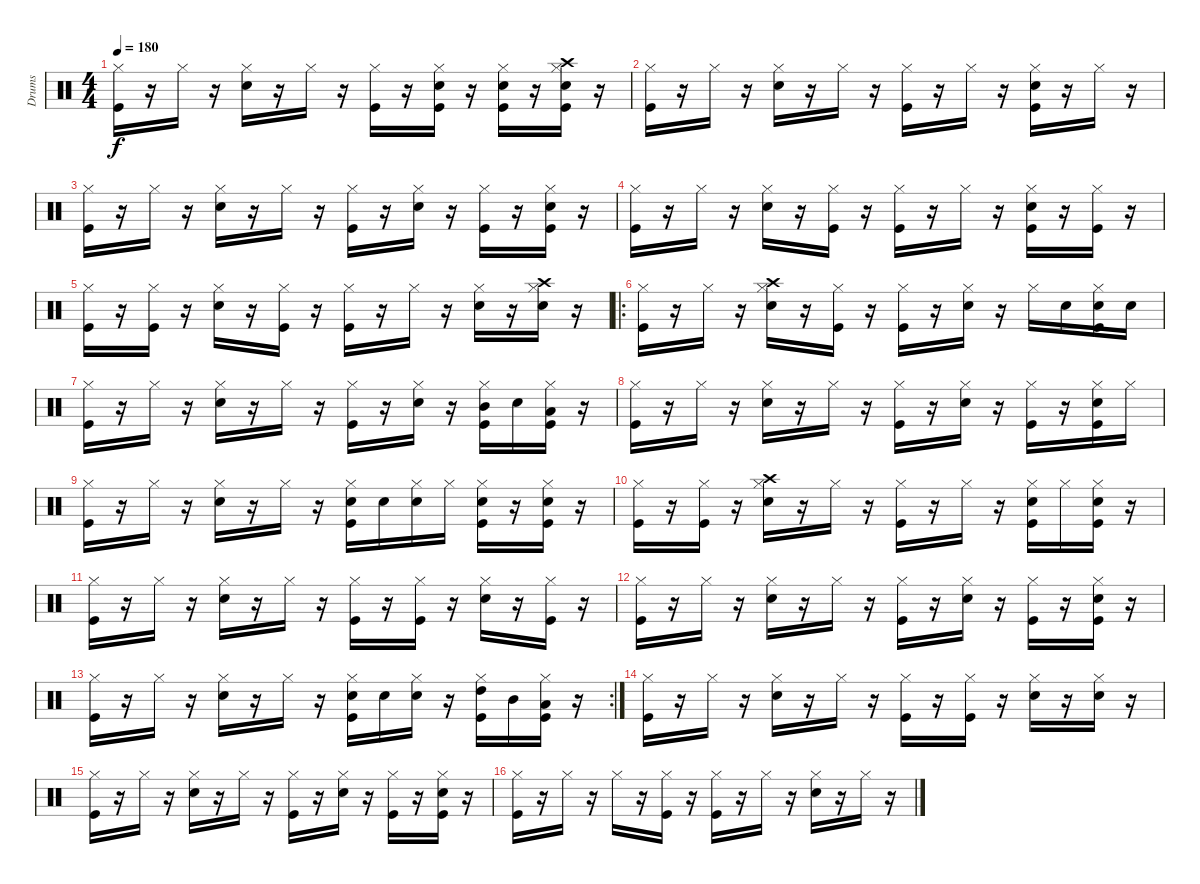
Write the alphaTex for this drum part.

\track ("Drums" "Drums") {instrument percussion}
\staff {score}
\articulation defaults
\ts (4 4)
\tempo 180
\clef neutral
\ks c
("Hi-Hat (closed)" "Kick (hit)").16{dy f} r.16 "Hi-Hat (closed)".16 r.16 ("Hi-Hat (closed)" "Snare (hit) 2").16 r.16 "Hi-Hat (closed)".16 r.16 ("Hi-Hat (closed)" "Kick (hit)").16 r.16 ("Hi-Hat (closed)" "Snare (hit) 2" "Kick (hit)").16 r.16 ("Hi-Hat (closed)" "Snare (hit) 2" "Kick (hit)").16 r.16 ("Crash high (hit)" "Hi-Hat (closed)" "Snare (hit) 2" "Kick (hit)").16 r.16 |
("Hi-Hat (closed)" "Kick (hit)").16 r.16 "Hi-Hat (closed)".16 r.16 ("Hi-Hat (closed)" "Snare (hit) 2").16 r.16 "Hi-Hat (closed)".16 r.16 ("Hi-Hat (closed)" "Kick (hit)").16 r.16 "Hi-Hat (closed)".16 r.16 ("Hi-Hat (closed)" "Snare (hit) 2" "Kick (hit)").16 r.16 "Hi-Hat (closed)".16 r.16 |
("Hi-Hat (closed)" "Kick (hit)").16 r.16 "Hi-Hat (closed)".16 r.16 ("Hi-Hat (closed)" "Snare (hit) 2").16 r.16 "Hi-Hat (closed)".16 r.16 ("Hi-Hat (closed)" "Kick (hit)").16 r.16 ("Hi-Hat (closed)" "Snare (hit) 2").16 r.16 ("Hi-Hat (closed)" "Kick (hit)").16 r.16 ("Hi-Hat (closed)" "Snare (hit) 2" "Kick (hit)").16 r.16 |
("Hi-Hat (closed)" "Kick (hit)").16 r.16 "Hi-Hat (closed)".16 r.16 ("Hi-Hat (closed)" "Snare (hit) 2").16 r.16 ("Hi-Hat (closed)" "Kick (hit)").16 r.16 ("Hi-Hat (closed)" "Kick (hit)").16 r.16 "Hi-Hat (closed)".16 r.16 ("Hi-Hat (closed)" "Snare (hit) 2" "Kick (hit)").16 r.16 ("Hi-Hat (closed)" "Kick (hit)").16 r.16 |
("Hi-Hat (closed)" "Kick (hit)").16 r.16 ("Hi-Hat (closed)" "Kick (hit)").16 r.16 ("Hi-Hat (closed)" "Snare (hit) 2").16 r.16 ("Hi-Hat (closed)" "Kick (hit)").16 r.16 ("Hi-Hat (closed)" "Kick (hit)").16 r.16 "Hi-Hat (closed)".16 r.16 ("Hi-Hat (closed)" "Snare (hit) 2").16 r.16 ("Crash high (hit)" "Hi-Hat (closed)" "Snare (hit) 2").16 r.16 |
\ro
("Hi-Hat (closed)" "Kick (hit)").16 r.16 "Hi-Hat (closed)".16 r.16 ("Crash high (hit)" "Hi-Hat (closed)" "Snare (hit) 2").16 r.16 ("Hi-Hat (closed)" "Kick (hit)").16 r.16 ("Hi-Hat (closed)" "Kick (hit)").16 r.16 ("Hi-Hat (closed)" "Snare (hit) 2").16 r.16 "Hi-Hat (closed)".16 "Snare (hit)".16 ("Hi-Hat (closed)" "Snare (hit) 2" "Kick (hit)").16 "Snare (hit) 2".16 |
("Hi-Hat (closed)" "Kick (hit)").16 r.16 "Hi-Hat (closed)".16 r.16 ("Hi-Hat (closed)" "Snare (hit) 2").16 r.16 "Hi-Hat (closed)".16 r.16 ("Hi-Hat (closed)" "Kick (hit)").16 r.16 ("Hi-Hat (closed)" "Snare (hit) 2").16 r.16 ("Hi-Hat (closed)" "Mid Tom (hit)" "Kick (hit)").16 "Snare (hit) 2".16 ("Hi-Hat (closed)" "Low Tom (hit)" "Kick (hit)").16 r.16 |
("Hi-Hat (closed)" "Kick (hit)").16 r.16 "Hi-Hat (closed)".16 r.16 ("Hi-Hat (closed)" "Snare (hit) 2").16 r.16 "Hi-Hat (closed)".16 r.16 ("Hi-Hat (closed)" "Kick (hit)").16 r.16 ("Hi-Hat (closed)" "Snare (hit) 2").16 r.16 ("Hi-Hat (closed)" "Kick (hit)").16 r.16 ("Hi-Hat (closed)" "Snare (hit) 2" "Kick (hit)").16 "Hi-Hat (closed)".16 |
("Hi-Hat (closed)" "Kick (hit)").16 r.16 "Hi-Hat (closed)".16 r.16 ("Hi-Hat (closed)" "Snare (hit) 2").16 r.16 "Hi-Hat (closed)".16 r.16 ("Hi-Hat (closed)" "Snare (hit) 2" "Kick (hit)").16 "Snare (hit) 2".16 ("Hi-Hat (closed)" "Snare (hit) 2").16 "Hi-Hat (closed)".16 ("Hi-Hat (closed)" "Snare (hit) 2" "Kick (hit)").16 r.16 ("Hi-Hat (closed)" "Snare (hit) 2" "Kick (hit)").16 r.16 |
("Hi-Hat (closed)" "Kick (hit)").16 r.16 ("Hi-Hat (closed)" "Kick (hit)").16 r.16 ("Crash high (hit)" "Hi-Hat (closed)" "Snare (hit) 2").16 r.16 "Hi-Hat (closed)".16 r.16 ("Hi-Hat (closed)" "Kick (hit)").16 r.16 "Hi-Hat (closed)".16 r.16 ("Hi-Hat (closed)" "Snare (hit) 2" "Kick (hit)").16 "Hi-Hat (closed)".16 ("Hi-Hat (closed)" "Snare (hit) 2" "Kick (hit)").16 r.16 |
("Hi-Hat (closed)" "Kick (hit)").16 r.16 "Hi-Hat (closed)".16 r.16 ("Hi-Hat (closed)" "Snare (hit) 2").16 r.16 "Hi-Hat (closed)".16 r.16 ("Hi-Hat (closed)" "Kick (hit)").16 r.16 ("Hi-Hat (closed)" "Kick (hit)").16 r.16 ("Hi-Hat (closed)" "Snare (hit) 2").16 r.16 ("Hi-Hat (closed)" "Kick (hit)").16 r.16 |
("Hi-Hat (closed)" "Kick (hit)").16 r.16 "Hi-Hat (closed)".16 r.16 ("Hi-Hat (closed)" "Snare (hit) 2").16 r.16 "Hi-Hat (closed)".16 r.16 ("Hi-Hat (closed)" "Kick (hit)").16 r.16 ("Hi-Hat (closed)" "Snare (hit) 2").16 r.16 ("Hi-Hat (closed)" "Kick (hit)").16 r.16 ("Hi-Hat (closed)" "Snare (hit) 2" "Kick (hit)").16 r.16 |
\rc 2
("Hi-Hat (closed)" "Kick (hit)").16 r.16 "Hi-Hat (closed)".16 r.16 ("Hi-Hat (closed)" "Snare (hit) 2").16 r.16 "Hi-Hat (closed)".16 r.16 ("Hi-Hat (closed)" "Snare (hit) 2" "Kick (hit)").16 "Snare (hit) 2".16 ("Hi-Hat (closed)" "Snare (hit) 2").16 r.16 ("Hi-Hat (closed)" "High Tom (hit)" "Kick (hit)").16 "Mid Tom (hit)".16 ("Hi-Hat (closed)" "Low Tom (hit)" "Kick (hit)").16 r.16 |
("Hi-Hat (closed)" "Kick (hit)").16 r.16 "Hi-Hat (closed)".16 r.16 ("Hi-Hat (closed)" "Snare (hit) 2").16 r.16 "Hi-Hat (closed)".16 r.16 ("Hi-Hat (closed)" "Kick (hit)").16 r.16 ("Hi-Hat (closed)" "Kick (hit)").16 r.16 ("Hi-Hat (closed)" "Snare (hit) 2").16 r.16 ("Hi-Hat (closed)" "Snare (hit) 2").16 r.16 |
("Hi-Hat (closed)" "Kick (hit)").16 r.16 "Hi-Hat (closed)".16 r.16 ("Hi-Hat (closed)" "Snare (hit) 2").16 r.16 "Hi-Hat (closed)".16 r.16 ("Hi-Hat (closed)" "Kick (hit)").16 r.16 ("Hi-Hat (closed)" "Snare (hit) 2").16 r.16 ("Hi-Hat (closed)" "Kick (hit)").16 r.16 ("Hi-Hat (closed)" "Snare (hit) 2" "Kick (hit)").16 r.16 |
("Hi-Hat (closed)" "Kick (hit)").16 r.16 "Hi-Hat (closed)".16 r.16 "Hi-Hat (closed)".16 r.16 ("Hi-Hat (closed)" "Kick (hit)").16 r.16 ("Hi-Hat (closed)" "Kick (hit)").16 r.16 "Hi-Hat (closed)".16 r.16 ("Hi-Hat (closed)" "Snare (hit) 2").16 r.16 "Hi-Hat (closed)".16 r.16
